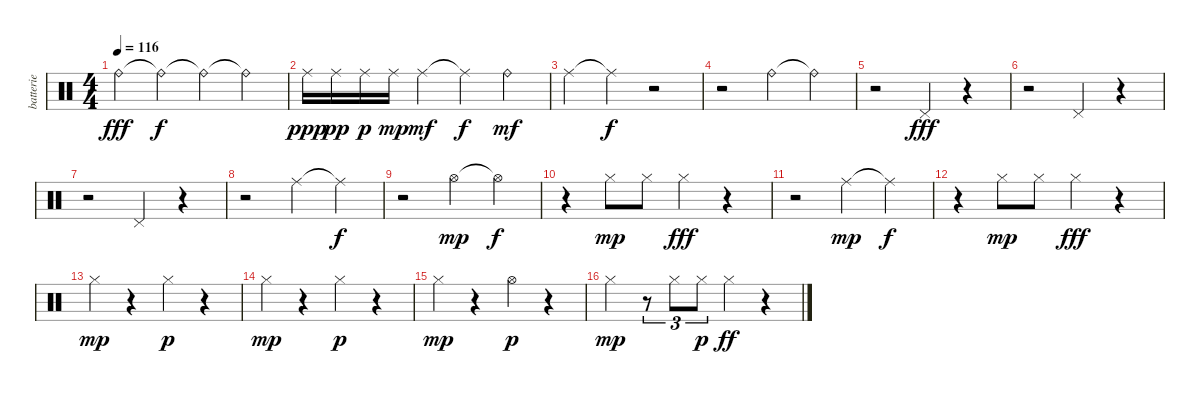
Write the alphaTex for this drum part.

\track ("batterie" "batterie") {instrument percussion}
\staff {score}
\articulation defaults
\ts (4 4)
\tempo 116
\clef neutral
\ks c "Ride (bell)".4{dy fff} "Ride (bell)"{t}.4{dy f} "Ride (bell)"{t}.4 "Ride (bell)"{t}.4
|
"Ride (middle)".16{dy ppp} "Ride (middle)".16{dy pp} "Ride (middle)".16{dy p} "Ride (middle)".16{dy mp} "Ride (middle)".4{dy mf} "Ride (middle)"{t}.4{dy f} "Ride (bell)".4{dy mf} |
"Ride (middle)".4 "Ride (middle)"{t}.4{dy f} r.2 |
r.2 "Ride (bell)".4 "Ride (bell)"{t}.4 |
r.2 "Pedal Hi-Hat (hit)".4{dy fff} r.4 |
r.2 "Pedal Hi-Hat (hit)".4 r.4 |
r.2 "Pedal Hi-Hat (hit)".4 r.4 |
r.2 "Ride (middle)".4 "Ride (middle)"{t}.4{dy f} |
r.2 "Hi-Hat (open)".4{dy mp} "Hi-Hat (open)"{t}.4{dy f} |
r.4 "Hi-Hat (closed)".8{dy mp} "Hi-Hat (closed)".8 "Hi-Hat (closed)".4{dy fff} r.4 |
r.2 "Ride (middle)".4{dy mp} "Ride (middle)"{t}.4{dy f} |
r.4 "Hi-Hat (closed)".8{dy mp} "Hi-Hat (closed)".8 "Hi-Hat (closed)".4{dy fff} r.4 |
"Hi-Hat (closed)".4{dy mp} r.4 "Hi-Hat (closed)".4{dy p} r.4 |
"Hi-Hat (closed)".4{dy mp} r.4 "Hi-Hat (closed)".4{dy p} r.4 |
"Hi-Hat (closed)".4{dy mp} r.4 "Hi-Hat (open)".4{dy p} r.4 |
"Hi-Hat (closed)".4{dy mp} r.8{tu (3 2)} "Hi-Hat (closed)".8{tu (3 2)} "Hi-Hat (closed)".8{tu (3 2) dy p} "Hi-Hat (closed)".4{dy ff} r.4
